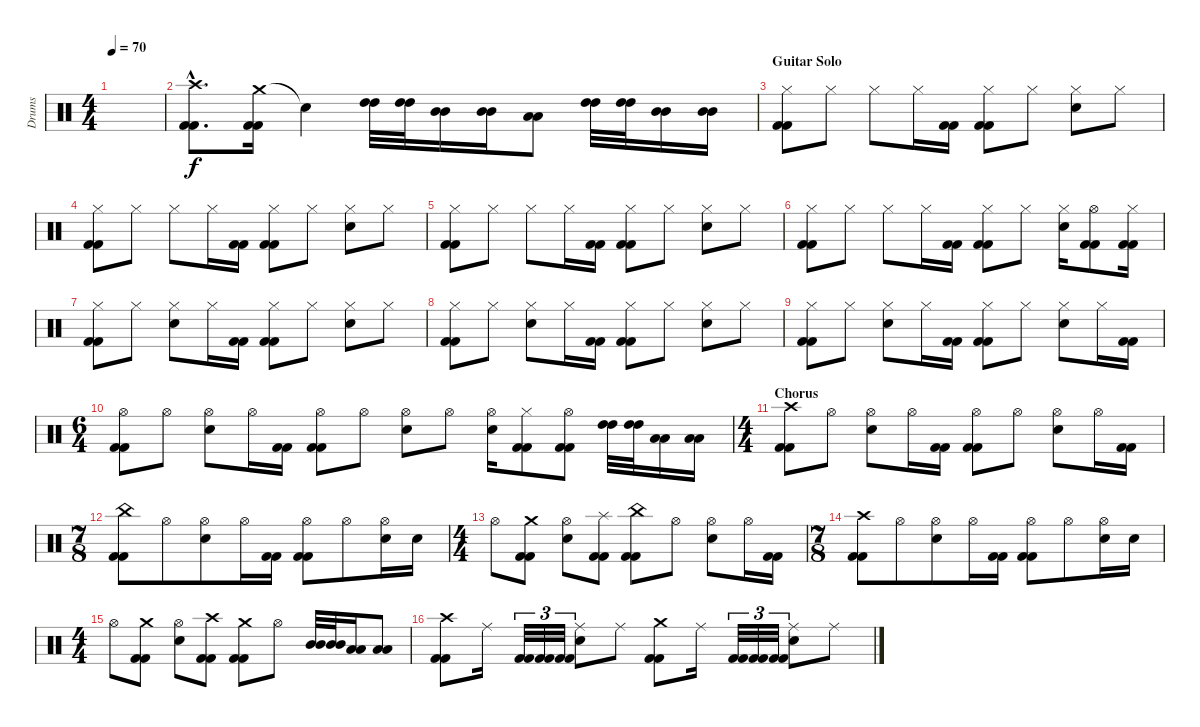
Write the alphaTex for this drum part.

\track ("Drums" "Drums") {instrument percussion}
\staff {score}
\articulation defaults
\ts (4 4)
\tempo 70
\clef neutral
\ks c
|
("Crash high (hit)"{hac} "Kick (hit) 2"{hac} "Kick (hit) 2"{hac}).8{d} ("Crash medium (hit)" "Kick (hit) 2" "Kick (hit) 2").16 "Snare (hit)"{t}.4 ("High Tom (hit)" "High Tom (hit)").32 ("High Tom (hit)" "High Tom (hit)").32 ("Mid Tom (hit)" "Mid Tom (hit)").16 ("Mid Tom (hit)" "Mid Tom (hit)").16 ("Low Tom (hit)" "Low Tom (hit)").8 ("High Tom (hit)" "High Tom (hit)").32 ("High Tom (hit)" "High Tom (hit)").32 ("Mid Tom (hit)" "Mid Tom (hit)").16 ("Mid Tom (hit)" "Mid Tom (hit)").16 |
\section ("" "Guitar Solo")
("Hi-Hat (closed)" "Kick (hit) 2" "Kick (hit) 2").8 "Hi-Hat (closed)".8 "Hi-Hat (closed)".8 "Hi-Hat (closed)".16 ("Kick (hit) 2" "Kick (hit) 2").16 ("Hi-Hat (closed)" "Kick (hit) 2" "Kick (hit) 2").8 "Hi-Hat (closed)".8 ("Hi-Hat (closed)" "Snare (hit) 2").8 "Hi-Hat (closed)".8 |
("Hi-Hat (closed)" "Kick (hit) 2" "Kick (hit) 2").8 "Hi-Hat (closed)".8 "Hi-Hat (closed)".8 "Hi-Hat (closed)".16 ("Kick (hit) 2" "Kick (hit) 2").16 ("Hi-Hat (closed)" "Kick (hit) 2" "Kick (hit) 2").8 "Hi-Hat (closed)".8 ("Hi-Hat (closed)" "Snare (hit) 2").8 "Hi-Hat (closed)".8 |
("Hi-Hat (closed)" "Kick (hit) 2" "Kick (hit) 2").8 "Hi-Hat (closed)".8 "Hi-Hat (closed)".8 "Hi-Hat (closed)".16 ("Kick (hit) 2" "Kick (hit) 2").16 ("Hi-Hat (closed)" "Kick (hit) 2" "Kick (hit) 2").8 "Hi-Hat (closed)".8 ("Hi-Hat (closed)" "Snare (hit) 2").8 "Hi-Hat (closed)".8 |
("Hi-Hat (closed)" "Kick (hit) 2" "Kick (hit) 2").8 "Hi-Hat (closed)".8 "Hi-Hat (closed)".8 "Hi-Hat (closed)".16 ("Kick (hit) 2" "Kick (hit) 2").16 ("Hi-Hat (closed)" "Kick (hit) 2" "Kick (hit) 2").8 "Hi-Hat (closed)".8 ("Hi-Hat (closed)" "Snare (hit) 2").16 ("Hi-Hat (open)" "Kick (hit) 2" "Kick (hit) 2").8 ("Hi-Hat (closed)" "Kick (hit) 2" "Kick (hit) 2").16 |
("Hi-Hat (closed)" "Kick (hit) 2" "Kick (hit) 2").8 "Hi-Hat (closed)".8 ("Hi-Hat (closed)" "Snare (hit) 2").8 "Hi-Hat (closed)".16 ("Kick (hit) 2" "Kick (hit) 2").16 ("Hi-Hat (closed)" "Kick (hit) 2" "Kick (hit) 2").8 "Hi-Hat (closed)".8 ("Hi-Hat (closed)" "Snare (hit) 2").8 "Hi-Hat (closed)".8 |
("Hi-Hat (closed)" "Kick (hit) 2" "Kick (hit) 2").8 "Hi-Hat (closed)".8 ("Hi-Hat (closed)" "Snare (hit) 2").8 "Hi-Hat (closed)".16 ("Kick (hit) 2" "Kick (hit) 2").16 ("Hi-Hat (closed)" "Kick (hit) 2" "Kick (hit) 2").8 "Hi-Hat (closed)".8 ("Hi-Hat (closed)" "Snare (hit) 2").8 "Hi-Hat (closed)".8 |
("Hi-Hat (closed)" "Kick (hit) 2" "Kick (hit) 2").8 "Hi-Hat (closed)".8 ("Hi-Hat (closed)" "Snare (hit) 2").8 "Hi-Hat (closed)".16 ("Kick (hit) 2" "Kick (hit) 2").16 ("Hi-Hat (closed)" "Kick (hit) 2" "Kick (hit) 2").8 "Hi-Hat (closed)".8 ("Hi-Hat (closed)" "Snare (hit) 2").8 "Hi-Hat (closed)".16 ("Kick (hit) 2" "Kick (hit) 2").16 |
\ts (6 4)
("Hi-Hat (open)" "Kick (hit) 2" "Kick (hit) 2").8 "Hi-Hat (open)".8 ("Hi-Hat (open)" "Snare (hit) 2").8 "Hi-Hat (open)".16 ("Kick (hit) 2" "Kick (hit) 2").16 ("Hi-Hat (open)" "Kick (hit) 2" "Kick (hit) 2").8 "Hi-Hat (open)".8 ("Hi-Hat (open)" "Snare (hit) 2").8 "Hi-Hat (open)".8 ("Hi-Hat (open)" "Snare (hit) 2").16 ("Hi-Hat (closed)" "Kick (hit) 2" "Kick (hit) 2").8 ("Hi-Hat (open)" "Kick (hit) 2" "Kick (hit) 2").8 ("High Tom (hit)" "High Tom (hit)").32 ("High Tom (hit)" "High Tom (hit)").32 ("Low Tom (hit)" "Low Tom (hit)").16 ("Low Tom (hit)" "Low Tom (hit)").16 |
\ts (4 4)
\section ("" "Chorus")
("Crash high (hit)" "Kick (hit) 2" "Kick (hit) 2").8 "Hi-Hat (open)".8 ("Hi-Hat (open)" "Snare (hit) 2").8 "Hi-Hat (open)".16 ("Kick (hit) 2" "Kick (hit) 2").16 ("Hi-Hat (open)" "Kick (hit) 2" "Kick (hit) 2").8 "Hi-Hat (open)".8 ("Hi-Hat (open)" "Snare (hit) 2").8 "Hi-Hat (open)".16 ("Kick (hit) 2" "Kick (hit) 2").16 |
\ts (7 8)
("China (hit)" "Kick (hit) 2" "Kick (hit) 2").8 "Hi-Hat (open)".8 ("Hi-Hat (open)" "Snare (hit) 2").8 "Hi-Hat (open)".16 ("Kick (hit) 2" "Kick (hit) 2").16 ("Hi-Hat (open)" "Kick (hit) 2" "Kick (hit) 2").8 "Hi-Hat (open)".8 ("Hi-Hat (open)" "Snare (hit) 2").16 "Snare (hit) 2".16 |
\ts (4 4)
"Hi-Hat (open)".8 ("Crash medium (hit)" "Kick (hit) 2" "Kick (hit) 2").8 ("Hi-Hat (open)" "Snare (hit) 2").8 ("Splash (hit)" "Kick (hit) 2" "Kick (hit) 2").8 ("China (hit)" "Kick (hit) 2" "Kick (hit) 2").8 "Hi-Hat (open)".8 ("Hi-Hat (open)" "Snare (hit) 2").8 "Hi-Hat (open)".16 ("Kick (hit) 2" "Kick (hit) 2").16 |
\ts (7 8)
("Crash high (hit)" "Kick (hit) 2" "Kick (hit) 2").8 "Hi-Hat (open)".8 ("Hi-Hat (open)" "Snare (hit) 2").8 "Hi-Hat (open)".16 ("Kick (hit) 2" "Kick (hit) 2").16 ("Hi-Hat (open)" "Kick (hit) 2" "Kick (hit) 2").8 "Hi-Hat (open)".8 ("Hi-Hat (open)" "Snare (hit) 2").16 "Snare (hit) 2".16 |
\ts (4 4)
"Hi-Hat (open)".8 ("Crash medium (hit)" "Kick (hit) 2" "Kick (hit) 2").8 ("Hi-Hat (open)" "Snare (hit) 2").8 ("Crash high (hit)" "Kick (hit) 2" "Kick (hit) 2").8 ("Crash medium (hit)" "Kick (hit) 2" "Kick (hit) 2").8 "Hi-Hat (open)".8 ("Mid Tom (hit)" "Mid Tom (hit)").32 ("Mid Tom (hit)" "Mid Tom (hit)").32 ("Low Tom (hit)" "Low Tom (hit)").16 ("Low Tom (hit)" "Low Tom (hit)").8 |
("Crash high (hit)" "Kick (hit) 2" "Kick (hit) 2").8 "Ride (middle)".16 ("Kick (hit) 2" "Kick (hit) 2").32{tu (3 2)} ("Kick (hit) 2" "Kick (hit) 2").32{tu (3 2)} ("Kick (hit) 2" "Kick (hit) 2").32{tu (3 2)} ("Ride (middle)" "Snare (hit) 2").8 "Ride (middle)".8 ("Crash medium (hit)" "Kick (hit) 2" "Kick (hit) 2").8 "Ride (middle)".16 ("Kick (hit) 2" "Kick (hit) 2").32{tu (3 2)} ("Kick (hit) 2" "Kick (hit) 2").32{tu (3 2)} ("Kick (hit) 2" "Kick (hit) 2").32{tu (3 2)} ("Ride (middle)" "Snare (hit) 2").8 "Ride (middle)".8
